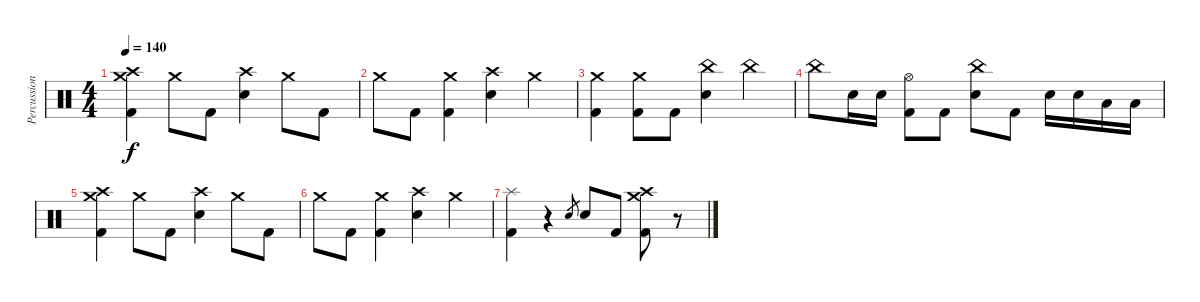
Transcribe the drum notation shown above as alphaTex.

\track ("Percussion" "Percussion") {instrument percussion}
\staff {score}
\articulation defaults
\ts (4 4)
\tempo 140
\clef neutral
\ks c
("Crash medium (hit)" "Crash high (hit)" "Kick (hit) 2").4{dy f} "Crash medium (hit)".8 "Kick (hit) 2".8 ("Crash high (hit)" "Electric Snare (hit)").4 "Crash medium (hit)".8 "Kick (hit) 2".8 |
"Crash medium (hit)".8 "Kick (hit) 2".8 ("Crash medium (hit)" "Kick (hit) 2").4 ("Crash high (hit)" "Electric Snare (hit)").4 "Crash medium (hit)".4 |
("Crash medium (hit)" "Kick (hit) 2").4 ("Crash medium (hit)" "Kick (hit) 2").8 "Kick (hit) 2".8 ("China (hit)" "Electric Snare (hit)").4 "China (hit)".4 |
"China (hit)".8 "Electric Snare (hit)".16 "Electric Snare (hit)".16 ("Hi-Hat (open)" "Kick (hit) 2").8 "Kick (hit) 2".8 ("China (hit)" "Electric Snare (hit)").8 "Kick (hit) 2".8 "Electric Snare (hit)".16 "Electric Snare (hit)".16 "Low Tom (hit)".16 "Low Tom (hit)".16 |
("Crash medium (hit)" "Crash high (hit)" "Kick (hit) 2").4 "Crash medium (hit)".8 "Kick (hit) 2".8 ("Crash high (hit)" "Electric Snare (hit)").4 "Crash medium (hit)".8 "Kick (hit) 2".8 |
"Crash medium (hit)".8 "Kick (hit) 2".8 ("Crash medium (hit)" "Kick (hit) 2").4 ("Crash high (hit)" "Electric Snare (hit)").4 "Crash medium (hit)".4 |
("Splash (hit)" "Kick (hit) 2").4 r.4 "Electric Snare (hit)".8{gr} "Electric Snare (hit)".8 "Kick (hit) 2".8 ("Crash medium (hit)" "Crash high (hit)" "Kick (hit) 2").8 r.8
